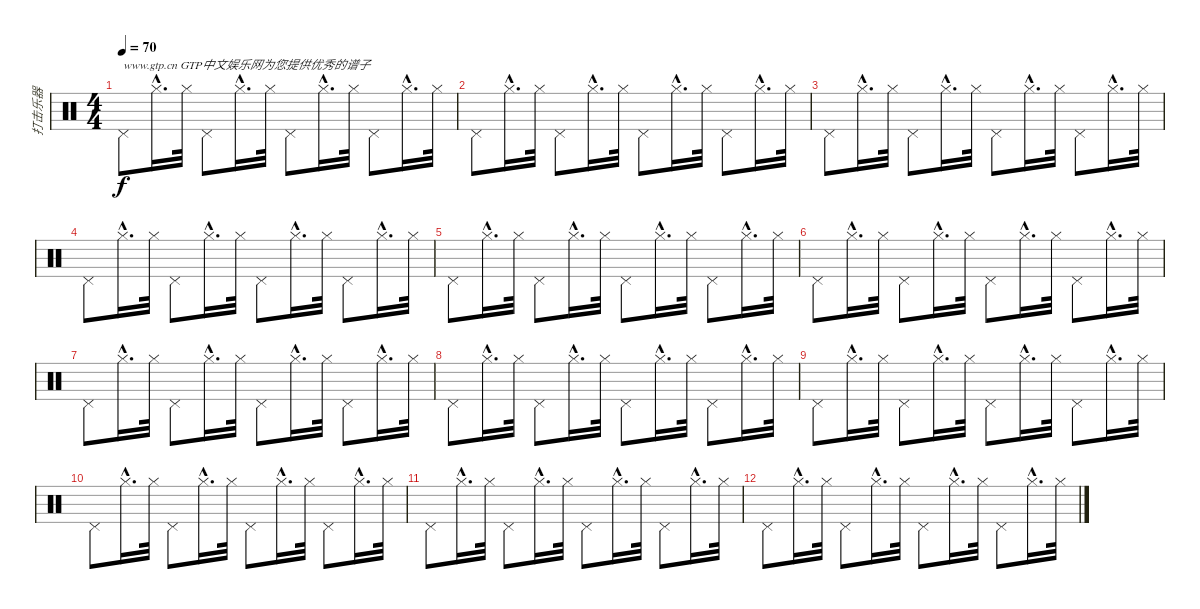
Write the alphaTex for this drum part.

\track ("打击乐器" "打击乐器") {instrument percussion}
\staff {score}
\articulation defaults
\ts (4 4)
\tempo 70
\clef neutral
\ks c "Pedal Hi-Hat (hit)".8{txt "www.gtp.cn GTP中文娱乐网为您提供优秀的谱子" dy f} "Hi-Hat (closed)"{hac}.16{d} "Hi-Hat (closed)".32 "Pedal Hi-Hat (hit)".8 "Hi-Hat (closed)"{hac}.16{d} "Hi-Hat (closed)".32 "Pedal Hi-Hat (hit)".8 "Hi-Hat (closed)"{hac}.16{d} "Hi-Hat (closed)".32 "Pedal Hi-Hat (hit)".8 "Hi-Hat (closed)"{hac}.16{d} "Hi-Hat (closed)".32
|
"Pedal Hi-Hat (hit)".8 "Hi-Hat (closed)"{hac}.16{d} "Hi-Hat (closed)".32 "Pedal Hi-Hat (hit)".8 "Hi-Hat (closed)"{hac}.16{d} "Hi-Hat (closed)".32 "Pedal Hi-Hat (hit)".8 "Hi-Hat (closed)"{hac}.16{d} "Hi-Hat (closed)".32 "Pedal Hi-Hat (hit)".8 "Hi-Hat (closed)"{hac}.16{d} "Hi-Hat (closed)".32 |
"Pedal Hi-Hat (hit)".8 "Hi-Hat (closed)"{hac}.16{d} "Hi-Hat (closed)".32 "Pedal Hi-Hat (hit)".8 "Hi-Hat (closed)"{hac}.16{d} "Hi-Hat (closed)".32 "Pedal Hi-Hat (hit)".8 "Hi-Hat (closed)"{hac}.16{d} "Hi-Hat (closed)".32 "Pedal Hi-Hat (hit)".8 "Hi-Hat (closed)"{hac}.16{d} "Hi-Hat (closed)".32 |
"Pedal Hi-Hat (hit)".8 "Hi-Hat (closed)"{hac}.16{d} "Hi-Hat (closed)".32 "Pedal Hi-Hat (hit)".8 "Hi-Hat (closed)"{hac}.16{d} "Hi-Hat (closed)".32 "Pedal Hi-Hat (hit)".8 "Hi-Hat (closed)"{hac}.16{d} "Hi-Hat (closed)".32 "Pedal Hi-Hat (hit)".8 "Hi-Hat (closed)"{hac}.16{d} "Hi-Hat (closed)".32 |
"Pedal Hi-Hat (hit)".8 "Hi-Hat (closed)"{hac}.16{d} "Hi-Hat (closed)".32 "Pedal Hi-Hat (hit)".8 "Hi-Hat (closed)"{hac}.16{d} "Hi-Hat (closed)".32 "Pedal Hi-Hat (hit)".8 "Hi-Hat (closed)"{hac}.16{d} "Hi-Hat (closed)".32 "Pedal Hi-Hat (hit)".8 "Hi-Hat (closed)"{hac}.16{d} "Hi-Hat (closed)".32 |
"Pedal Hi-Hat (hit)".8 "Hi-Hat (closed)"{hac}.16{d} "Hi-Hat (closed)".32 "Pedal Hi-Hat (hit)".8 "Hi-Hat (closed)"{hac}.16{d} "Hi-Hat (closed)".32 "Pedal Hi-Hat (hit)".8 "Hi-Hat (closed)"{hac}.16{d} "Hi-Hat (closed)".32 "Pedal Hi-Hat (hit)".8 "Hi-Hat (closed)"{hac}.16{d} "Hi-Hat (closed)".32 |
"Pedal Hi-Hat (hit)".8 "Hi-Hat (closed)"{hac}.16{d} "Hi-Hat (closed)".32 "Pedal Hi-Hat (hit)".8 "Hi-Hat (closed)"{hac}.16{d} "Hi-Hat (closed)".32 "Pedal Hi-Hat (hit)".8 "Hi-Hat (closed)"{hac}.16{d} "Hi-Hat (closed)".32 "Pedal Hi-Hat (hit)".8 "Hi-Hat (closed)"{hac}.16{d} "Hi-Hat (closed)".32 |
"Pedal Hi-Hat (hit)".8 "Hi-Hat (closed)"{hac}.16{d} "Hi-Hat (closed)".32 "Pedal Hi-Hat (hit)".8 "Hi-Hat (closed)"{hac}.16{d} "Hi-Hat (closed)".32 "Pedal Hi-Hat (hit)".8 "Hi-Hat (closed)"{hac}.16{d} "Hi-Hat (closed)".32 "Pedal Hi-Hat (hit)".8 "Hi-Hat (closed)"{hac}.16{d} "Hi-Hat (closed)".32 |
"Pedal Hi-Hat (hit)".8 "Hi-Hat (closed)"{hac}.16{d} "Hi-Hat (closed)".32 "Pedal Hi-Hat (hit)".8 "Hi-Hat (closed)"{hac}.16{d} "Hi-Hat (closed)".32 "Pedal Hi-Hat (hit)".8 "Hi-Hat (closed)"{hac}.16{d} "Hi-Hat (closed)".32 "Pedal Hi-Hat (hit)".8 "Hi-Hat (closed)"{hac}.16{d} "Hi-Hat (closed)".32 |
"Pedal Hi-Hat (hit)".8 "Hi-Hat (closed)"{hac}.16{d} "Hi-Hat (closed)".32 "Pedal Hi-Hat (hit)".8 "Hi-Hat (closed)"{hac}.16{d} "Hi-Hat (closed)".32 "Pedal Hi-Hat (hit)".8 "Hi-Hat (closed)"{hac}.16{d} "Hi-Hat (closed)".32 "Pedal Hi-Hat (hit)".8 "Hi-Hat (closed)"{hac}.16{d} "Hi-Hat (closed)".32 |
"Pedal Hi-Hat (hit)".8 "Hi-Hat (closed)"{hac}.16{d} "Hi-Hat (closed)".32 "Pedal Hi-Hat (hit)".8 "Hi-Hat (closed)"{hac}.16{d} "Hi-Hat (closed)".32 "Pedal Hi-Hat (hit)".8 "Hi-Hat (closed)"{hac}.16{d} "Hi-Hat (closed)".32 "Pedal Hi-Hat (hit)".8 "Hi-Hat (closed)"{hac}.16{d} "Hi-Hat (closed)".32 |
"Pedal Hi-Hat (hit)".8 "Hi-Hat (closed)"{hac}.16{d} "Hi-Hat (closed)".32 "Pedal Hi-Hat (hit)".8 "Hi-Hat (closed)"{hac}.16{d} "Hi-Hat (closed)".32 "Pedal Hi-Hat (hit)".8 "Hi-Hat (closed)"{hac}.16{d} "Hi-Hat (closed)".32 "Pedal Hi-Hat (hit)".8 "Hi-Hat (closed)"{hac}.16{d} "Hi-Hat (closed)".32
